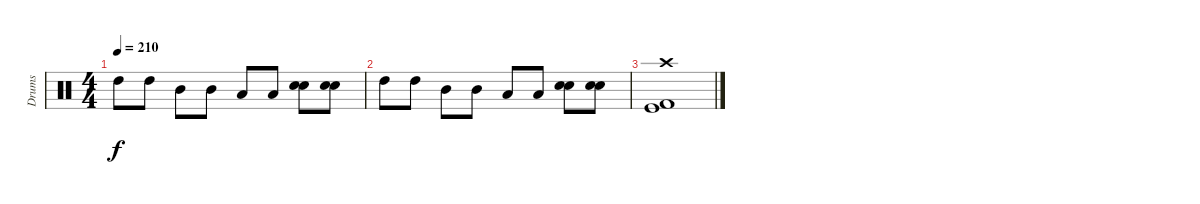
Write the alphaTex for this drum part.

\track ("Drums" "Drums") {instrument percussion}
\staff {score}
\articulation defaults
\ts (4 4)
\tempo 210
\clef neutral
\ks c "High Tom (hit)".8{dy f} "High Tom (hit)".8 "Mid Tom (hit)".8 "Mid Tom (hit)".8 "Low Tom (hit)".8 "Low Tom (hit)".8
("Electric Snare (hit)" "Snare (hit) 2").8 ("Electric Snare (hit)" "Snare (hit) 2").8 |
"High Tom (hit)".8 "High Tom (hit)".8 "Mid Tom (hit)".8 "Mid Tom (hit)".8 "Low Tom (hit)".8 "Low Tom (hit)".8 ("Electric Snare (hit)" "Snare (hit) 2").8 ("Electric Snare (hit)" "Snare (hit) 2").8 |
("Kick (hit) 2" "Kick (hit)" "Crash high (hit)").1
